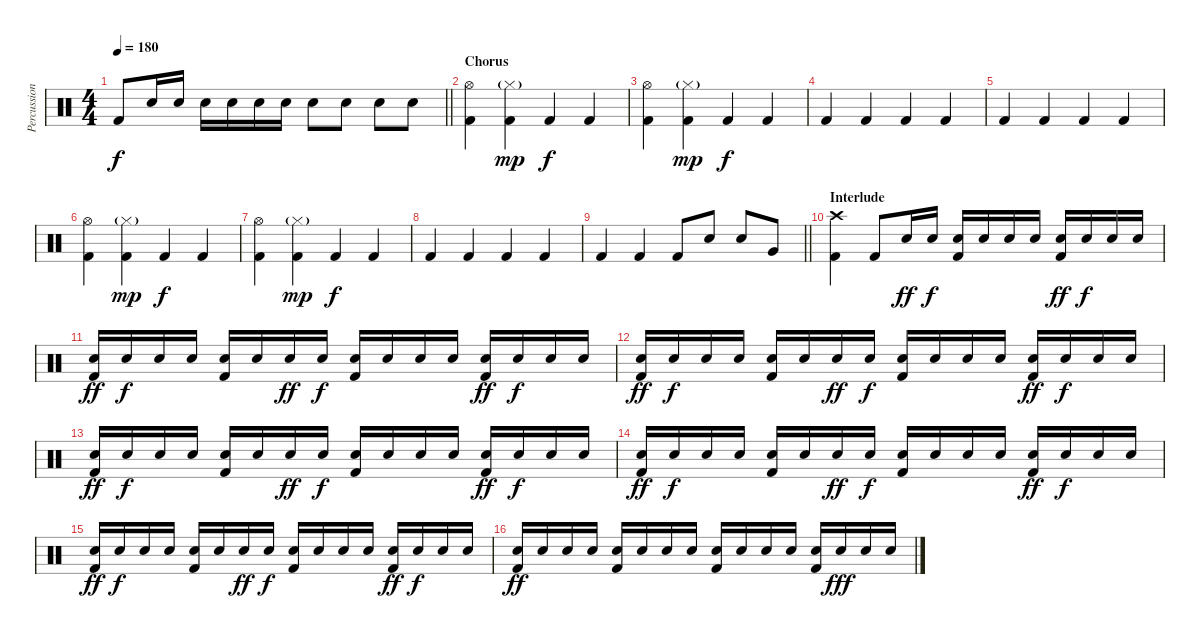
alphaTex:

\track ("Percussion" "Percussion") {instrument percussion}
\staff {score}
\articulation defaults
\ts (4 4)
\tempo 180
\clef neutral
\barLineRight lightlight
\ks c "Kick (hit) 2".8{dy f} "Snare (hit) 2".16 "Snare (hit) 2".16 "Snare (hit) 2".16 "Snare (hit) 2".16 "Snare (hit) 2".16 "Snare (hit) 2".16 "Snare (hit) 2".8 "Snare (hit) 2".8 "Snare (hit) 2".8 "Snare (hit) 2".8
|
\section ("" "Chorus")
("Hi-Hat (open)" "Kick (hit) 2").4 ("Hi-Hat (closed)"{g} "Kick (hit) 2").4{dy mp} "Kick (hit) 2".4{dy f} "Kick (hit) 2".4 |
("Hi-Hat (open)" "Kick (hit) 2").4 ("Hi-Hat (closed)"{g} "Kick (hit) 2").4{dy mp} "Kick (hit) 2".4{dy f} "Kick (hit) 2".4 |
"Kick (hit) 2".4 "Kick (hit) 2".4 "Kick (hit) 2".4 "Kick (hit) 2".4 |
"Kick (hit) 2".4 "Kick (hit) 2".4 "Kick (hit) 2".4 "Kick (hit) 2".4 |
("Hi-Hat (open)" "Kick (hit) 2").4 ("Hi-Hat (closed)"{g} "Kick (hit) 2").4{dy mp} "Kick (hit) 2".4{dy f} "Kick (hit) 2".4 |
("Hi-Hat (open)" "Kick (hit) 2").4 ("Hi-Hat (closed)"{g} "Kick (hit) 2").4{dy mp} "Kick (hit) 2".4{dy f} "Kick (hit) 2".4 |
"Kick (hit) 2".4 "Kick (hit) 2".4 "Kick (hit) 2".4 "Kick (hit) 2".4 |
\barLineRight lightlight "Kick (hit) 2".4 "Kick (hit) 2".4 "Kick (hit) 2".8 "Snare (hit) 2".8 "Snare (hit) 2".8 "Very Low Tom (hit)".8
|
\section ("" "Interlude")
("Crash high (hit)" "Kick (hit) 2").4 "Kick (hit) 2".8 "Snare (hit) 2".16{dy ff} "Snare (hit) 2".16{dy f} ("Snare (hit) 2" "Kick (hit) 2").16 "Snare (hit) 2".16 "Snare (hit) 2".16 "Snare (hit) 2".16 ("Snare (hit) 2" "Kick (hit) 2").16{dy ff} "Snare (hit) 2".16{dy f} "Snare (hit) 2".16 "Snare (hit) 2".16 |
("Snare (hit) 2" "Kick (hit) 2").16{dy ff} "Snare (hit) 2".16{dy f} "Snare (hit) 2".16 "Snare (hit) 2".16 ("Snare (hit) 2" "Kick (hit) 2").16 "Snare (hit) 2".16 "Snare (hit) 2".16{dy ff} "Snare (hit) 2".16{dy f} ("Snare (hit) 2" "Kick (hit) 2").16 "Snare (hit) 2".16 "Snare (hit) 2".16 "Snare (hit) 2".16 ("Snare (hit) 2" "Kick (hit) 2").16{dy ff} "Snare (hit) 2".16{dy f} "Snare (hit) 2".16 "Snare (hit) 2".16 |
("Snare (hit) 2" "Kick (hit) 2").16{dy ff} "Snare (hit) 2".16{dy f} "Snare (hit) 2".16 "Snare (hit) 2".16 ("Snare (hit) 2" "Kick (hit) 2").16 "Snare (hit) 2".16 "Snare (hit) 2".16{dy ff} "Snare (hit) 2".16{dy f} ("Snare (hit) 2" "Kick (hit) 2").16 "Snare (hit) 2".16 "Snare (hit) 2".16 "Snare (hit) 2".16 ("Snare (hit) 2" "Kick (hit) 2").16{dy ff} "Snare (hit) 2".16{dy f} "Snare (hit) 2".16 "Snare (hit) 2".16 |
("Snare (hit) 2" "Kick (hit) 2").16{dy ff} "Snare (hit) 2".16{dy f} "Snare (hit) 2".16 "Snare (hit) 2".16 ("Snare (hit) 2" "Kick (hit) 2").16 "Snare (hit) 2".16 "Snare (hit) 2".16{dy ff} "Snare (hit) 2".16{dy f} ("Snare (hit) 2" "Kick (hit) 2").16 "Snare (hit) 2".16 "Snare (hit) 2".16 "Snare (hit) 2".16 ("Snare (hit) 2" "Kick (hit) 2").16{dy ff} "Snare (hit) 2".16{dy f} "Snare (hit) 2".16 "Snare (hit) 2".16 |
("Snare (hit) 2" "Kick (hit) 2").16{dy ff} "Snare (hit) 2".16{dy f} "Snare (hit) 2".16 "Snare (hit) 2".16 ("Snare (hit) 2" "Kick (hit) 2").16 "Snare (hit) 2".16 "Snare (hit) 2".16{dy ff} "Snare (hit) 2".16{dy f} ("Snare (hit) 2" "Kick (hit) 2").16 "Snare (hit) 2".16 "Snare (hit) 2".16 "Snare (hit) 2".16 ("Snare (hit) 2" "Kick (hit) 2").16{dy ff} "Snare (hit) 2".16{dy f} "Snare (hit) 2".16 "Snare (hit) 2".16 |
("Snare (hit) 2" "Kick (hit) 2").16{dy ff} "Snare (hit) 2".16{dy f} "Snare (hit) 2".16 "Snare (hit) 2".16 ("Snare (hit) 2" "Kick (hit) 2").16 "Snare (hit) 2".16 "Snare (hit) 2".16{dy ff} "Snare (hit) 2".16{dy f} ("Snare (hit) 2" "Kick (hit) 2").16 "Snare (hit) 2".16 "Snare (hit) 2".16 "Snare (hit) 2".16 ("Snare (hit) 2" "Kick (hit) 2").16{dy ff} "Snare (hit) 2".16{dy f} "Snare (hit) 2".16 "Snare (hit) 2".16 |
("Snare (hit) 2" "Kick (hit) 2").16{dy ff} "Snare (hit) 2".16 "Snare (hit) 2".16 "Snare (hit) 2".16 ("Snare (hit) 2" "Kick (hit) 2").16 "Snare (hit) 2".16 "Snare (hit) 2".16 "Snare (hit) 2".16 ("Snare (hit) 2" "Kick (hit) 2").16 "Snare (hit) 2".16 "Snare (hit) 2".16 "Snare (hit) 2".16 ("Snare (hit) 2" "Kick (hit) 2").16 "Snare (hit) 2".16{dy fff} "Snare (hit) 2".16 "Snare (hit) 2".16
